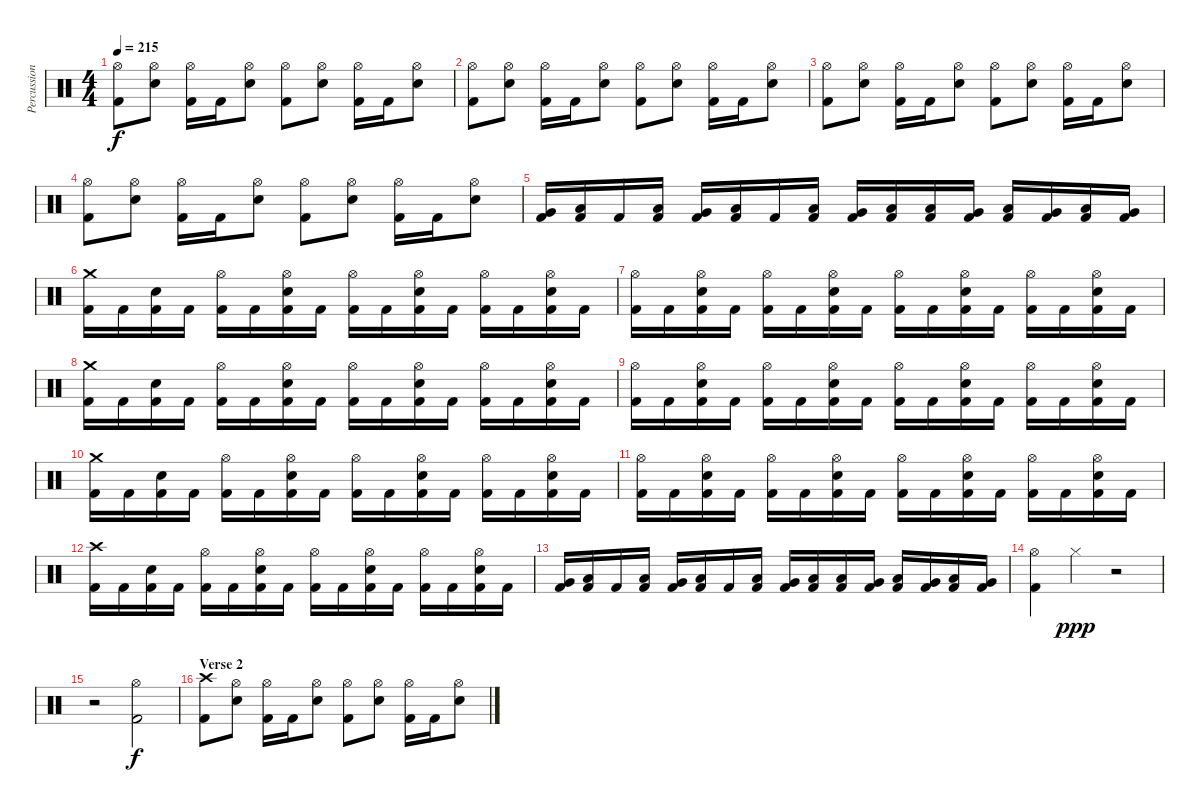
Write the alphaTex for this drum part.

\track ("Percussion" "Percussion") {instrument percussion}
\staff {score}
\articulation defaults
\ts (4 4)
\tempo 215
\clef neutral
\ks c
("Hi-Hat (open)" "Kick (hit) 2").8{dy f} ("Hi-Hat (open)" "Snare (hit) 2").8 ("Hi-Hat (open)" "Kick (hit) 2").16 "Kick (hit) 2".16 ("Hi-Hat (open)" "Snare (hit) 2").8 ("Hi-Hat (open)" "Kick (hit) 2").8 ("Hi-Hat (open)" "Snare (hit) 2").8 ("Hi-Hat (open)" "Kick (hit) 2").16 "Kick (hit) 2".16 ("Hi-Hat (open)" "Snare (hit) 2").8 |
("Hi-Hat (open)" "Kick (hit) 2").8 ("Hi-Hat (open)" "Snare (hit) 2").8 ("Hi-Hat (open)" "Kick (hit) 2").16 "Kick (hit) 2".16 ("Hi-Hat (open)" "Snare (hit) 2").8 ("Hi-Hat (open)" "Kick (hit) 2").8 ("Hi-Hat (open)" "Snare (hit) 2").8 ("Hi-Hat (open)" "Kick (hit) 2").16 "Kick (hit) 2".16 ("Hi-Hat (open)" "Snare (hit) 2").8 |
("Hi-Hat (open)" "Kick (hit) 2").8 ("Hi-Hat (open)" "Snare (hit) 2").8 ("Hi-Hat (open)" "Kick (hit) 2").16 "Kick (hit) 2".16 ("Hi-Hat (open)" "Snare (hit) 2").8 ("Hi-Hat (open)" "Kick (hit) 2").8 ("Hi-Hat (open)" "Snare (hit) 2").8 ("Hi-Hat (open)" "Kick (hit) 2").16 "Kick (hit) 2".16 ("Hi-Hat (open)" "Snare (hit) 2").8 |
("Hi-Hat (open)" "Kick (hit) 2").8 ("Hi-Hat (open)" "Snare (hit) 2").8 ("Hi-Hat (open)" "Kick (hit) 2").16 "Kick (hit) 2".16 ("Hi-Hat (open)" "Snare (hit) 2").8 ("Hi-Hat (open)" "Kick (hit) 2").8 ("Hi-Hat (open)" "Snare (hit) 2").8 ("Hi-Hat (open)" "Kick (hit) 2").16 "Kick (hit) 2".16 ("Hi-Hat (open)" "Snare (hit) 2").8 |
("Very Low Tom (hit)" "Kick (hit) 2").16 ("Low Floor Tom (hit)" "Kick (hit) 2").16 "Kick (hit) 2".16 ("Low Floor Tom (hit)" "Kick (hit) 2").16 ("Very Low Tom (hit)" "Kick (hit) 2").16 ("Low Floor Tom (hit)" "Kick (hit) 2").16 "Kick (hit) 2".16 ("Low Floor Tom (hit)" "Kick (hit) 2").16 ("Very Low Tom (hit)" "Kick (hit) 2").16 ("Low Floor Tom (hit)" "Kick (hit) 2").16 ("Low Floor Tom (hit)" "Kick (hit) 2").16 ("Very Low Tom (hit)" "Kick (hit) 2").16 ("Low Tom (hit)" "Kick (hit) 2").16 ("Very Low Tom (hit)" "Kick (hit) 2").16 ("Low Floor Tom (hit)" "Kick (hit) 2").16 ("Very Low Tom (hit)" "Kick (hit) 2").16 |
("Crash medium (hit)" "Kick (hit) 2").16 "Kick (hit) 2".16 ("Snare (hit) 2" "Kick (hit) 2").16 "Kick (hit) 2".16 ("Hi-Hat (open)" "Kick (hit) 2").16 "Kick (hit) 2".16 ("Hi-Hat (open)" "Snare (hit) 2" "Kick (hit) 2").16 "Kick (hit) 2".16 ("Hi-Hat (open)" "Kick (hit) 2").16 "Kick (hit) 2".16 ("Hi-Hat (open)" "Snare (hit) 2" "Kick (hit) 2").16 "Kick (hit) 2".16 ("Hi-Hat (open)" "Kick (hit) 2").16 "Kick (hit) 2".16 ("Hi-Hat (open)" "Snare (hit) 2" "Kick (hit) 2").16 "Kick (hit) 2".16 |
("Hi-Hat (open)" "Kick (hit) 2").16 "Kick (hit) 2".16 ("Hi-Hat (open)" "Snare (hit) 2" "Kick (hit) 2").16 "Kick (hit) 2".16 ("Hi-Hat (open)" "Kick (hit) 2").16 "Kick (hit) 2".16 ("Hi-Hat (open)" "Snare (hit) 2" "Kick (hit) 2").16 "Kick (hit) 2".16 ("Hi-Hat (open)" "Kick (hit) 2").16 "Kick (hit) 2".16 ("Hi-Hat (open)" "Snare (hit) 2" "Kick (hit) 2").16 "Kick (hit) 2".16 ("Hi-Hat (open)" "Kick (hit) 2").16 "Kick (hit) 2".16 ("Hi-Hat (open)" "Snare (hit) 2" "Kick (hit) 2").16 "Kick (hit) 2".16 |
("Crash medium (hit)" "Kick (hit) 2").16 "Kick (hit) 2".16 ("Snare (hit) 2" "Kick (hit) 2").16 "Kick (hit) 2".16 ("Hi-Hat (open)" "Kick (hit) 2").16 "Kick (hit) 2".16 ("Hi-Hat (open)" "Snare (hit) 2" "Kick (hit) 2").16 "Kick (hit) 2".16 ("Hi-Hat (open)" "Kick (hit) 2").16 "Kick (hit) 2".16 ("Hi-Hat (open)" "Snare (hit) 2" "Kick (hit) 2").16 "Kick (hit) 2".16 ("Hi-Hat (open)" "Kick (hit) 2").16 "Kick (hit) 2".16 ("Hi-Hat (open)" "Snare (hit) 2" "Kick (hit) 2").16 "Kick (hit) 2".16 |
("Hi-Hat (open)" "Kick (hit) 2").16 "Kick (hit) 2".16 ("Hi-Hat (open)" "Snare (hit) 2" "Kick (hit) 2").16 "Kick (hit) 2".16 ("Hi-Hat (open)" "Kick (hit) 2").16 "Kick (hit) 2".16 ("Hi-Hat (open)" "Snare (hit) 2" "Kick (hit) 2").16 "Kick (hit) 2".16 ("Hi-Hat (open)" "Kick (hit) 2").16 "Kick (hit) 2".16 ("Hi-Hat (open)" "Snare (hit) 2" "Kick (hit) 2").16 "Kick (hit) 2".16 ("Hi-Hat (open)" "Kick (hit) 2").16 "Kick (hit) 2".16 ("Hi-Hat (open)" "Snare (hit) 2" "Kick (hit) 2").16 "Kick (hit) 2".16 |
("Crash medium (hit)" "Kick (hit) 2").16 "Kick (hit) 2".16 ("Snare (hit) 2" "Kick (hit) 2").16 "Kick (hit) 2".16 ("Hi-Hat (open)" "Kick (hit) 2").16 "Kick (hit) 2".16 ("Hi-Hat (open)" "Snare (hit) 2" "Kick (hit) 2").16 "Kick (hit) 2".16 ("Hi-Hat (open)" "Kick (hit) 2").16 "Kick (hit) 2".16 ("Hi-Hat (open)" "Snare (hit) 2" "Kick (hit) 2").16 "Kick (hit) 2".16 ("Hi-Hat (open)" "Kick (hit) 2").16 "Kick (hit) 2".16 ("Hi-Hat (open)" "Snare (hit) 2" "Kick (hit) 2").16 "Kick (hit) 2".16 |
("Hi-Hat (open)" "Kick (hit) 2").16 "Kick (hit) 2".16 ("Hi-Hat (open)" "Snare (hit) 2" "Kick (hit) 2").16 "Kick (hit) 2".16 ("Hi-Hat (open)" "Kick (hit) 2").16 "Kick (hit) 2".16 ("Hi-Hat (open)" "Snare (hit) 2" "Kick (hit) 2").16 "Kick (hit) 2".16 ("Hi-Hat (open)" "Kick (hit) 2").16 "Kick (hit) 2".16 ("Hi-Hat (open)" "Snare (hit) 2" "Kick (hit) 2").16 "Kick (hit) 2".16 ("Hi-Hat (open)" "Kick (hit) 2").16 "Kick (hit) 2".16 ("Hi-Hat (open)" "Snare (hit) 2" "Kick (hit) 2").16 "Kick (hit) 2".16 |
("Crash high (hit)" "Kick (hit) 2").16 "Kick (hit) 2".16 ("Snare (hit) 2" "Kick (hit) 2").16 "Kick (hit) 2".16 ("Hi-Hat (open)" "Kick (hit) 2").16 "Kick (hit) 2".16 ("Hi-Hat (open)" "Snare (hit) 2" "Kick (hit) 2").16 "Kick (hit) 2".16 ("Hi-Hat (open)" "Kick (hit) 2").16 "Kick (hit) 2".16 ("Hi-Hat (open)" "Snare (hit) 2" "Kick (hit) 2").16 "Kick (hit) 2".16 ("Hi-Hat (open)" "Kick (hit) 2").16 "Kick (hit) 2".16 ("Hi-Hat (open)" "Snare (hit) 2" "Kick (hit) 2").16 "Kick (hit) 2".16 |
("Very Low Tom (hit)" "Kick (hit) 2").16 ("Low Floor Tom (hit)" "Kick (hit) 2").16 "Kick (hit) 2".16 ("Low Floor Tom (hit)" "Kick (hit) 2").16 ("Very Low Tom (hit)" "Kick (hit) 2").16 ("Low Floor Tom (hit)" "Kick (hit) 2").16 "Kick (hit) 2".16 ("Low Floor Tom (hit)" "Kick (hit) 2").16 ("Very Low Tom (hit)" "Kick (hit) 2").16 ("Low Floor Tom (hit)" "Kick (hit) 2").16 ("Low Floor Tom (hit)" "Kick (hit) 2").16 ("Very Low Tom (hit)" "Kick (hit) 2").16 ("Low Tom (hit)" "Kick (hit) 2").16 ("Very Low Tom (hit)" "Kick (hit) 2").16 ("Low Floor Tom (hit)" "Kick (hit) 2").16 ("Very Low Tom (hit)" "Kick (hit) 2").16 |
("Hi-Hat (open)" "Kick (hit) 2").4 "Hi-Hat (closed)".4{dy ppp} r.2 |
r.2 ("Hi-Hat (open)" "Kick (hit) 2").2{dy f} |
\section ("" "Verse 2")
("Crash high (hit)" "Kick (hit) 2").8 ("Hi-Hat (open)" "Snare (hit) 2").8 ("Hi-Hat (open)" "Kick (hit) 2").16 "Kick (hit) 2".16 ("Hi-Hat (open)" "Snare (hit) 2").8 ("Hi-Hat (open)" "Kick (hit) 2").8 ("Hi-Hat (open)" "Snare (hit) 2").8 ("Hi-Hat (open)" "Kick (hit) 2").16 "Kick (hit) 2".16 ("Hi-Hat (open)" "Snare (hit) 2").8
